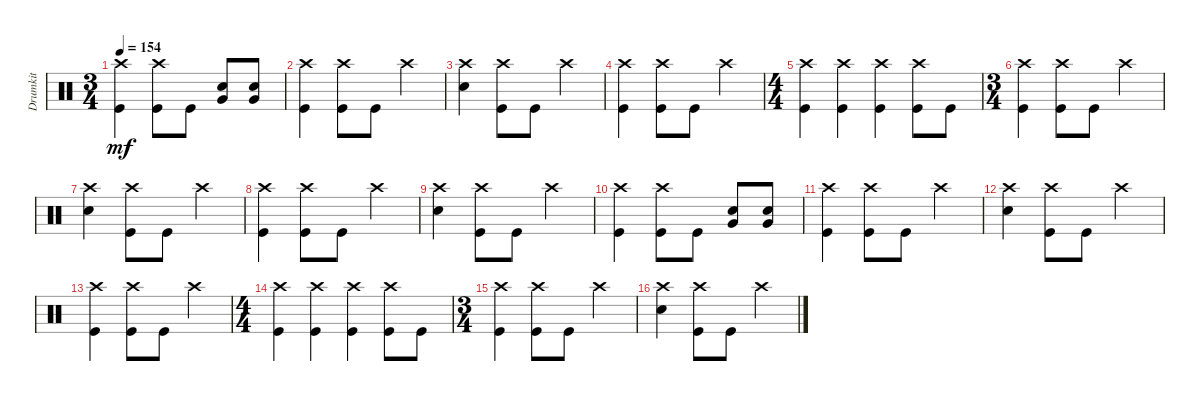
\track ("Drumkit" "Drumkit") {instrument percussion}
\staff {score}
\articulation defaults
\ts (3 4)
\tempo 154
\clef neutral
\ks c
("Crash high (hit)" "Kick (hit)").4{dy mf} ("Crash high (hit)" "Kick (hit)").8 "Kick (hit)".8 ("Snare (hit) 2" "Very Low Tom (hit)").8 ("Snare (hit) 2" "Very Low Tom (hit)").8 |
("Crash high (hit)" "Kick (hit)").4 ("Crash high (hit)" "Kick (hit)").8 "Kick (hit)".8 "Crash high (hit)".4 |
("Crash high (hit)" "Snare (hit) 2").4 ("Crash high (hit)" "Kick (hit)").8 "Kick (hit)".8 "Crash high (hit)".4 |
("Crash high (hit)" "Kick (hit)").4 ("Crash high (hit)" "Kick (hit)").8 "Kick (hit)".8 "Crash high (hit)".4 |
\ts (4 4)
("Crash high (hit)" "Kick (hit)").4 ("Crash high (hit)" "Kick (hit)").4 ("Crash high (hit)" "Kick (hit)").4 ("Crash high (hit)" "Kick (hit)").8 "Kick (hit)".8 |
\ts (3 4)
("Crash high (hit)" "Kick (hit)").4 ("Crash high (hit)" "Kick (hit)").8 "Kick (hit)".8 "Crash high (hit)".4 |
("Crash high (hit)" "Snare (hit) 2").4 ("Crash high (hit)" "Kick (hit)").8 "Kick (hit)".8 "Crash high (hit)".4 |
("Crash high (hit)" "Kick (hit)").4 ("Crash high (hit)" "Kick (hit)").8 "Kick (hit)".8 "Crash high (hit)".4 |
("Crash high (hit)" "Snare (hit) 2").4 ("Crash high (hit)" "Kick (hit)").8 "Kick (hit)".8 "Crash high (hit)".4 |
("Crash high (hit)" "Kick (hit)").4 ("Crash high (hit)" "Kick (hit)").8 "Kick (hit)".8 ("Snare (hit) 2" "Very Low Tom (hit)").8 ("Snare (hit) 2" "Very Low Tom (hit)").8 |
("Crash high (hit)" "Kick (hit)").4 ("Crash high (hit)" "Kick (hit)").8 "Kick (hit)".8 "Crash high (hit)".4 |
("Crash high (hit)" "Snare (hit) 2").4 ("Crash high (hit)" "Kick (hit)").8 "Kick (hit)".8 "Crash high (hit)".4 |
("Crash high (hit)" "Kick (hit)").4 ("Crash high (hit)" "Kick (hit)").8 "Kick (hit)".8 "Crash high (hit)".4 |
\ts (4 4)
("Crash high (hit)" "Kick (hit)").4 ("Crash high (hit)" "Kick (hit)").4 ("Crash high (hit)" "Kick (hit)").4 ("Crash high (hit)" "Kick (hit)").8 "Kick (hit)".8 |
\ts (3 4)
("Crash high (hit)" "Kick (hit)").4 ("Crash high (hit)" "Kick (hit)").8 "Kick (hit)".8 "Crash high (hit)".4 |
("Crash high (hit)" "Snare (hit) 2").4 ("Crash high (hit)" "Kick (hit)").8 "Kick (hit)".8 "Crash high (hit)".4
